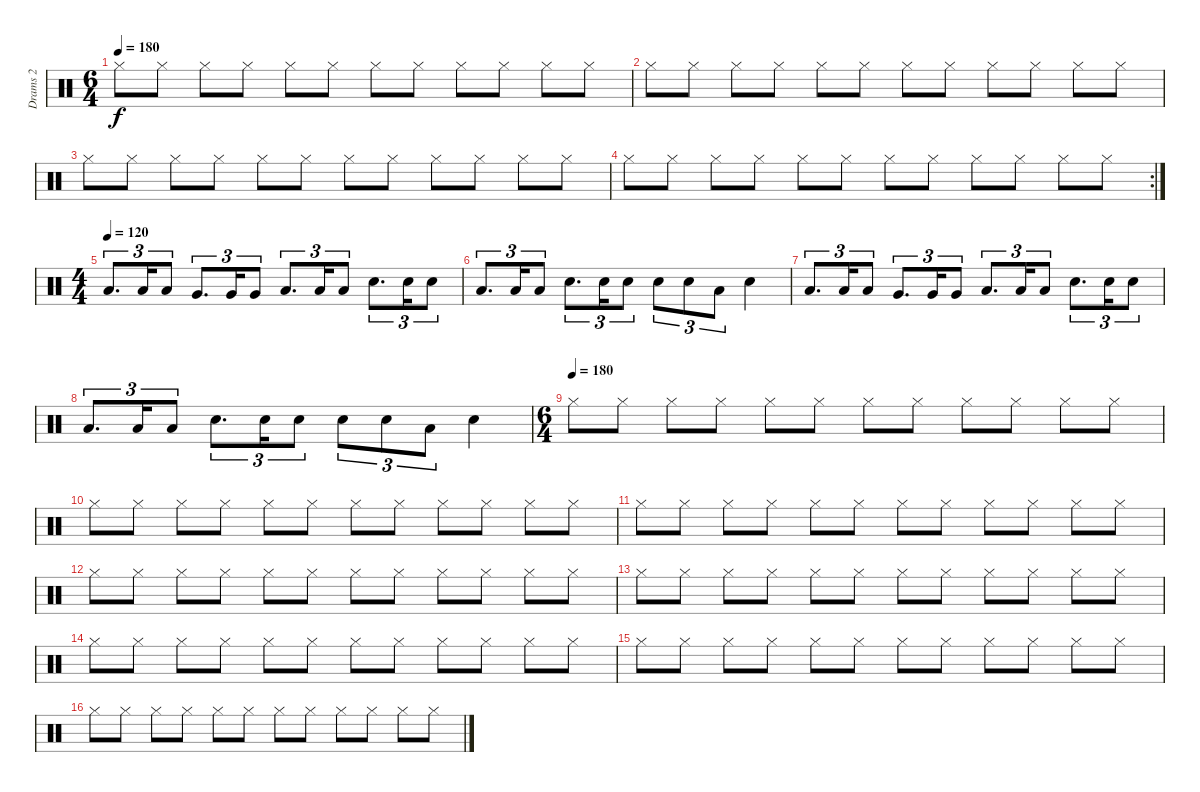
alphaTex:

\track ("Drams 2" "Drams 2") {instrument percussion}
\staff {score}
\articulation defaults
\ts (6 4)
\tempo 180
\clef neutral
\ks c "Hi-Hat (closed)".8{dy f} "Hi-Hat (closed)".8 "Hi-Hat (closed)".8 "Hi-Hat (closed)".8 "Hi-Hat (closed)".8 "Hi-Hat (closed)".8 "Hi-Hat (closed)".8 "Hi-Hat (closed)".8 "Hi-Hat (closed)".8 "Hi-Hat (closed)".8 "Hi-Hat (closed)".8 "Hi-Hat (closed)".8
|
"Hi-Hat (closed)".8 "Hi-Hat (closed)".8 "Hi-Hat (closed)".8 "Hi-Hat (closed)".8 "Hi-Hat (closed)".8 "Hi-Hat (closed)".8 "Hi-Hat (closed)".8 "Hi-Hat (closed)".8 "Hi-Hat (closed)".8 "Hi-Hat (closed)".8 "Hi-Hat (closed)".8 "Hi-Hat (closed)".8 |
"Hi-Hat (closed)".8 "Hi-Hat (closed)".8 "Hi-Hat (closed)".8 "Hi-Hat (closed)".8 "Hi-Hat (closed)".8 "Hi-Hat (closed)".8 "Hi-Hat (closed)".8 "Hi-Hat (closed)".8 "Hi-Hat (closed)".8 "Hi-Hat (closed)".8 "Hi-Hat (closed)".8 "Hi-Hat (closed)".8 |
\rc 2 "Hi-Hat (closed)".8 "Hi-Hat (closed)".8 "Hi-Hat (closed)".8 "Hi-Hat (closed)".8 "Hi-Hat (closed)".8 "Hi-Hat (closed)".8 "Hi-Hat (closed)".8 "Hi-Hat (closed)".8 "Hi-Hat (closed)".8 "Hi-Hat (closed)".8 "Hi-Hat (closed)".8 "Hi-Hat (closed)".8
|
\ts (4 4)
\tempo (120)
"Low Floor Tom (hit)".8{d tu (3 2)} "Low Floor Tom (hit)".16{tu (3 2)} "Low Floor Tom (hit)".8{tu (3 2)} "Very Low Tom (hit)".8{d tu (3 2)} "Very Low Tom (hit)".16{tu (3 2)} "Very Low Tom (hit)".8{tu (3 2)} "Low Tom (hit)".8{d tu (3 2)} "Low Tom (hit)".16{tu (3 2)} "Low Tom (hit)".8{tu (3 2)} "Snare (hit) 2".8{d tu (3 2)} "Snare (hit) 2".16{tu (3 2)} "Snare (hit) 2".8{tu (3 2)} |
"Low Tom (hit)".8{d tu (3 2)} "Low Tom (hit)".16{tu (3 2)} "Low Tom (hit)".8{tu (3 2)} "Snare (hit) 2".8{d tu (3 2)} "Snare (hit) 2".16{tu (3 2)} "Snare (hit) 2".8{tu (3 2)} "Snare (hit) 2".8{tu (3 2)} "Snare (hit) 2".8{tu (3 2)} "Low Tom (hit)".8{tu (3 2)} "Snare (hit) 2".4 |
"Low Floor Tom (hit)".8{d tu (3 2)} "Low Floor Tom (hit)".16{tu (3 2)} "Low Floor Tom (hit)".8{tu (3 2)} "Very Low Tom (hit)".8{d tu (3 2)} "Very Low Tom (hit)".16{tu (3 2)} "Very Low Tom (hit)".8{tu (3 2)} "Low Tom (hit)".8{d tu (3 2)} "Low Tom (hit)".16{tu (3 2)} "Low Tom (hit)".8{tu (3 2)} "Snare (hit) 2".8{d tu (3 2)} "Snare (hit) 2".16{tu (3 2)} "Snare (hit) 2".8{tu (3 2)} |
"Low Tom (hit)".8{d tu (3 2)} "Low Tom (hit)".16{tu (3 2)} "Low Tom (hit)".8{tu (3 2)} "Snare (hit) 2".8{d tu (3 2)} "Snare (hit) 2".16{tu (3 2)} "Snare (hit) 2".8{tu (3 2)} "Snare (hit) 2".8{tu (3 2)} "Snare (hit) 2".8{tu (3 2)} "Low Tom (hit)".8{tu (3 2)} "Snare (hit) 2".4 |
\ts (6 4)
\tempo (180)
"Hi-Hat (closed)".8 "Hi-Hat (closed)".8 "Hi-Hat (closed)".8 "Hi-Hat (closed)".8 "Hi-Hat (closed)".8 "Hi-Hat (closed)".8 "Hi-Hat (closed)".8 "Hi-Hat (closed)".8 "Hi-Hat (closed)".8 "Hi-Hat (closed)".8 "Hi-Hat (closed)".8 "Hi-Hat (closed)".8 |
"Hi-Hat (closed)".8 "Hi-Hat (closed)".8 "Hi-Hat (closed)".8 "Hi-Hat (closed)".8 "Hi-Hat (closed)".8 "Hi-Hat (closed)".8 "Hi-Hat (closed)".8 "Hi-Hat (closed)".8 "Hi-Hat (closed)".8 "Hi-Hat (closed)".8 "Hi-Hat (closed)".8 "Hi-Hat (closed)".8 |
"Hi-Hat (closed)".8 "Hi-Hat (closed)".8 "Hi-Hat (closed)".8 "Hi-Hat (closed)".8 "Hi-Hat (closed)".8 "Hi-Hat (closed)".8 "Hi-Hat (closed)".8 "Hi-Hat (closed)".8 "Hi-Hat (closed)".8 "Hi-Hat (closed)".8 "Hi-Hat (closed)".8 "Hi-Hat (closed)".8 |
"Hi-Hat (closed)".8 "Hi-Hat (closed)".8 "Hi-Hat (closed)".8 "Hi-Hat (closed)".8 "Hi-Hat (closed)".8 "Hi-Hat (closed)".8 "Hi-Hat (closed)".8 "Hi-Hat (closed)".8 "Hi-Hat (closed)".8 "Hi-Hat (closed)".8 "Hi-Hat (closed)".8 "Hi-Hat (closed)".8 |
"Hi-Hat (closed)".8 "Hi-Hat (closed)".8 "Hi-Hat (closed)".8 "Hi-Hat (closed)".8 "Hi-Hat (closed)".8 "Hi-Hat (closed)".8 "Hi-Hat (closed)".8 "Hi-Hat (closed)".8 "Hi-Hat (closed)".8 "Hi-Hat (closed)".8 "Hi-Hat (closed)".8 "Hi-Hat (closed)".8 |
"Hi-Hat (closed)".8 "Hi-Hat (closed)".8 "Hi-Hat (closed)".8 "Hi-Hat (closed)".8 "Hi-Hat (closed)".8 "Hi-Hat (closed)".8 "Hi-Hat (closed)".8 "Hi-Hat (closed)".8 "Hi-Hat (closed)".8 "Hi-Hat (closed)".8 "Hi-Hat (closed)".8 "Hi-Hat (closed)".8 |
"Hi-Hat (closed)".8 "Hi-Hat (closed)".8 "Hi-Hat (closed)".8 "Hi-Hat (closed)".8 "Hi-Hat (closed)".8 "Hi-Hat (closed)".8 "Hi-Hat (closed)".8 "Hi-Hat (closed)".8 "Hi-Hat (closed)".8 "Hi-Hat (closed)".8 "Hi-Hat (closed)".8 "Hi-Hat (closed)".8 |
"Hi-Hat (closed)".8 "Hi-Hat (closed)".8 "Hi-Hat (closed)".8 "Hi-Hat (closed)".8 "Hi-Hat (closed)".8 "Hi-Hat (closed)".8 "Hi-Hat (closed)".8 "Hi-Hat (closed)".8 "Hi-Hat (closed)".8 "Hi-Hat (closed)".8 "Hi-Hat (closed)".8 "Hi-Hat (closed)".8
